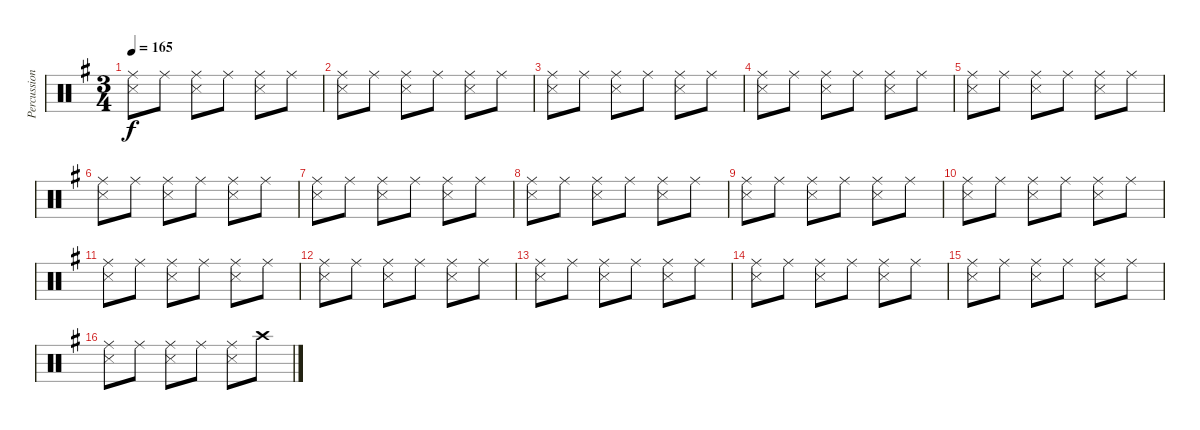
\track ("Percussion" "Percussion") {instrument percussion}
\staff {score}
\articulation defaults
\ts (3 4)
\tempo 165
\clef neutral
\ks g
("Ride (middle)" "Snare (side stick) 3").8{dy f} "Ride (middle)".8 ("Ride (middle)" "Snare (side stick) 3").8 "Ride (middle)".8 ("Ride (middle)" "Snare (side stick) 3").8 "Ride (middle)".8 |
("Ride (middle)" "Snare (side stick) 3").8 "Ride (middle)".8 ("Ride (middle)" "Snare (side stick) 3").8 "Ride (middle)".8 ("Ride (middle)" "Snare (side stick) 3").8 "Ride (middle)".8 |
("Ride (middle)" "Snare (side stick) 3").8 "Ride (middle)".8 ("Ride (middle)" "Snare (side stick) 3").8 "Ride (middle)".8 ("Ride (middle)" "Snare (side stick) 3").8 "Ride (middle)".8 |
("Ride (middle)" "Snare (side stick) 3").8 "Ride (middle)".8 ("Ride (middle)" "Snare (side stick) 3").8 "Ride (middle)".8 ("Ride (middle)" "Snare (side stick) 3").8 "Ride (middle)".8 |
("Ride (middle)" "Snare (side stick) 3").8 "Ride (middle)".8 ("Ride (middle)" "Snare (side stick) 3").8 "Ride (middle)".8 ("Ride (middle)" "Snare (side stick) 3").8 "Ride (middle)".8 |
("Ride (middle)" "Snare (side stick) 3").8 "Ride (middle)".8 ("Ride (middle)" "Snare (side stick) 3").8 "Ride (middle)".8 ("Ride (middle)" "Snare (side stick) 3").8 "Ride (middle)".8 |
("Ride (middle)" "Snare (side stick) 3").8 "Ride (middle)".8 ("Ride (middle)" "Snare (side stick) 3").8 "Ride (middle)".8 ("Ride (middle)" "Snare (side stick) 3").8 "Ride (middle)".8 |
("Ride (middle)" "Snare (side stick) 3").8 "Ride (middle)".8 ("Ride (middle)" "Snare (side stick) 3").8 "Ride (middle)".8 ("Ride (middle)" "Snare (side stick) 3").8 "Ride (middle)".8 |
("Ride (middle)" "Snare (side stick) 3").8 "Ride (middle)".8 ("Ride (middle)" "Snare (side stick) 3").8 "Ride (middle)".8 ("Ride (middle)" "Snare (side stick) 3").8 "Ride (middle)".8 |
("Ride (middle)" "Snare (side stick) 3").8 "Ride (middle)".8 ("Ride (middle)" "Snare (side stick) 3").8 "Ride (middle)".8 ("Ride (middle)" "Snare (side stick) 3").8 "Ride (middle)".8 |
("Ride (middle)" "Snare (side stick) 3").8 "Ride (middle)".8 ("Ride (middle)" "Snare (side stick) 3").8 "Ride (middle)".8 ("Ride (middle)" "Snare (side stick) 3").8 "Ride (middle)".8 |
("Ride (middle)" "Snare (side stick) 3").8 "Ride (middle)".8 ("Ride (middle)" "Snare (side stick) 3").8 "Ride (middle)".8 ("Ride (middle)" "Snare (side stick) 3").8 "Ride (middle)".8 |
("Ride (middle)" "Snare (side stick) 3").8 "Ride (middle)".8 ("Ride (middle)" "Snare (side stick) 3").8 "Ride (middle)".8 ("Ride (middle)" "Snare (side stick) 3").8 "Ride (middle)".8 |
("Ride (middle)" "Snare (side stick) 3").8 "Ride (middle)".8 ("Ride (middle)" "Snare (side stick) 3").8 "Ride (middle)".8 ("Ride (middle)" "Snare (side stick) 3").8 "Ride (middle)".8 |
("Ride (middle)" "Snare (side stick) 3").8 "Ride (middle)".8 ("Ride (middle)" "Snare (side stick) 3").8 "Ride (middle)".8 ("Ride (middle)" "Snare (side stick) 3").8 "Ride (middle)".8 |
("Ride (middle)" "Snare (side stick) 3").8 "Ride (middle)".8 ("Ride (middle)" "Snare (side stick) 3").8 "Ride (middle)".8 ("Ride (middle)" "Snare (side stick) 3").8 "Crash high (hit)".8
